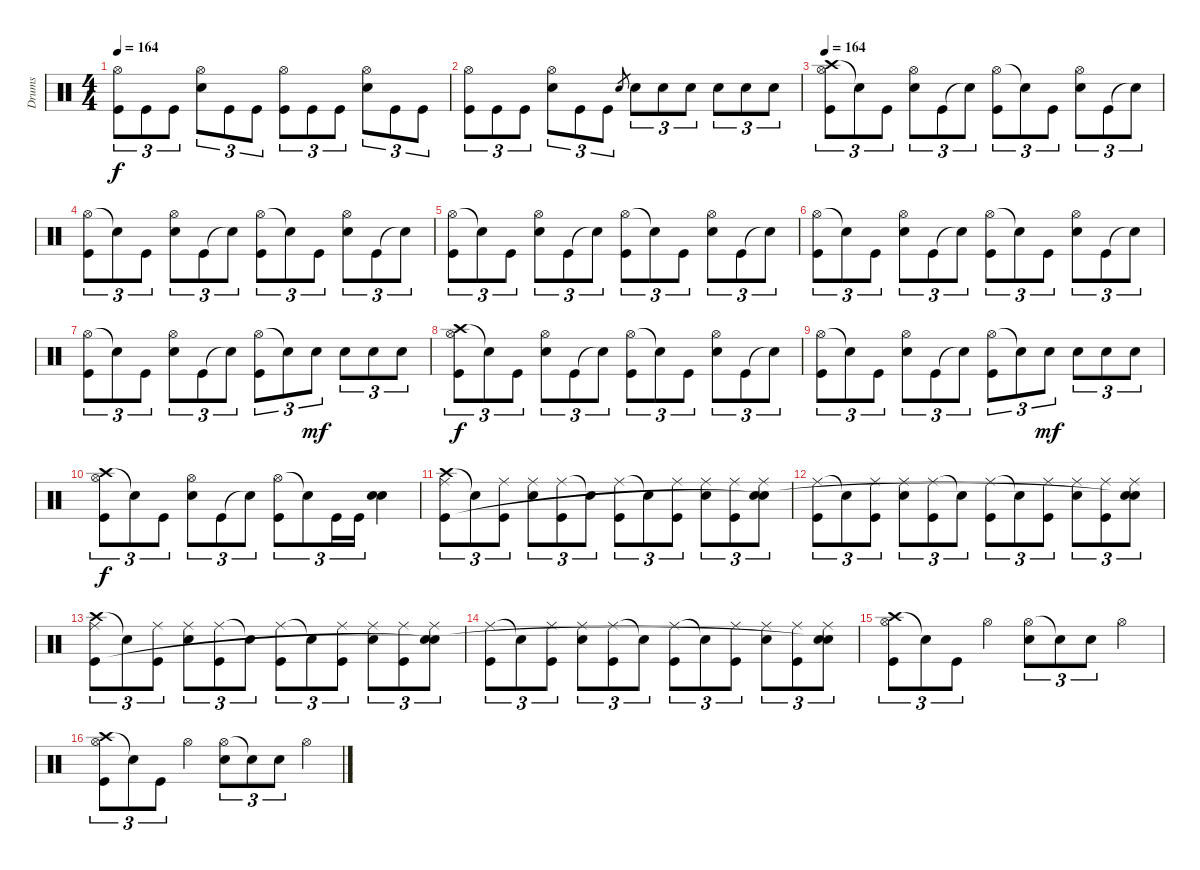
\track ("Drums" "Drums") {instrument percussion}
\staff {score}
\articulation defaults
\ts (4 4)
\tempo 164
\clef neutral
\ks c
("Hi-Hat (open)" "Kick (hit)").8{tu (3 2) dy f} "Kick (hit)".8{tu (3 2)} "Kick (hit)".8{tu (3 2)} ("Hi-Hat (open)" "Electric Snare (hit)").8{tu (3 2)} "Kick (hit)".8{tu (3 2)} "Kick (hit)".8{tu (3 2)} ("Hi-Hat (open)" "Kick (hit)").8{tu (3 2)} "Kick (hit)".8{tu (3 2)} "Kick (hit)".8{tu (3 2)} ("Hi-Hat (open)" "Electric Snare (hit)").8{tu (3 2)} "Kick (hit)".8{tu (3 2)} "Kick (hit)".8{tu (3 2)} |
("Hi-Hat (open)" "Kick (hit)").8{tu (3 2)} "Kick (hit)".8{tu (3 2)} "Kick (hit)".8{tu (3 2)} ("Hi-Hat (open)" "Electric Snare (hit)").8{tu (3 2)} "Kick (hit)".8{tu (3 2)} "Kick (hit)".8{tu (3 2)} "Electric Snare (hit)".8{gr} "Electric Snare (hit)".8{tu (3 2)} "Electric Snare (hit)".8{tu (3 2)} "Electric Snare (hit)".8{tu (3 2)} "Electric Snare (hit)".8{tu (3 2)} "Electric Snare (hit)".8{tu (3 2)} "Electric Snare (hit)".8{tu (3 2)} |
\tempo 164
("Crash high (hit)" "Hi-Hat (open)" "Kick (hit)").8{tu (3 2)} "Snare (hit)"{t}.8{tu (3 2)} "Kick (hit)".8{tu (3 2)} ("Hi-Hat (open)" "Electric Snare (hit)").8{tu (3 2)} "Kick (hit)".8{tu (3 2)} "Snare (hit)"{t}.8{tu (3 2)} ("Hi-Hat (open)" "Kick (hit)").8{tu (3 2)} "Snare (hit)"{t}.8{tu (3 2)} "Kick (hit)".8{tu (3 2)} ("Hi-Hat (open)" "Electric Snare (hit)").8{tu (3 2)} "Kick (hit)".8{tu (3 2)} "Snare (hit)"{t}.8{tu (3 2)} |
("Hi-Hat (open)" "Kick (hit)").8{tu (3 2)} "Snare (hit)"{t}.8{tu (3 2)} "Kick (hit)".8{tu (3 2)} ("Hi-Hat (open)" "Electric Snare (hit)").8{tu (3 2)} "Kick (hit)".8{tu (3 2)} "Snare (hit)"{t}.8{tu (3 2)} ("Hi-Hat (open)" "Kick (hit)").8{tu (3 2)} "Snare (hit)"{t}.8{tu (3 2)} "Kick (hit)".8{tu (3 2)} ("Hi-Hat (open)" "Electric Snare (hit)").8{tu (3 2)} "Kick (hit)".8{tu (3 2)} "Snare (hit)"{t}.8{tu (3 2)} |
("Hi-Hat (open)" "Kick (hit)").8{tu (3 2)} "Snare (hit)"{t}.8{tu (3 2)} "Kick (hit)".8{tu (3 2)} ("Hi-Hat (open)" "Electric Snare (hit)").8{tu (3 2)} "Kick (hit)".8{tu (3 2)} "Snare (hit)"{t}.8{tu (3 2)} ("Hi-Hat (open)" "Kick (hit)").8{tu (3 2)} "Snare (hit)"{t}.8{tu (3 2)} "Kick (hit)".8{tu (3 2)} ("Hi-Hat (open)" "Electric Snare (hit)").8{tu (3 2)} "Kick (hit)".8{tu (3 2)} "Snare (hit)"{t}.8{tu (3 2)} |
("Hi-Hat (open)" "Kick (hit)").8{tu (3 2)} "Snare (hit)"{t}.8{tu (3 2)} "Kick (hit)".8{tu (3 2)} ("Hi-Hat (open)" "Electric Snare (hit)").8{tu (3 2)} "Kick (hit)".8{tu (3 2)} "Snare (hit)"{t}.8{tu (3 2)} ("Hi-Hat (open)" "Kick (hit)").8{tu (3 2)} "Snare (hit)"{t}.8{tu (3 2)} "Kick (hit)".8{tu (3 2)} ("Hi-Hat (open)" "Electric Snare (hit)").8{tu (3 2)} "Kick (hit)".8{tu (3 2)} "Snare (hit)"{t}.8{tu (3 2)} |
("Hi-Hat (open)" "Kick (hit)").8{tu (3 2)} "Snare (hit)"{t}.8{tu (3 2)} "Kick (hit)".8{tu (3 2)} ("Hi-Hat (open)" "Electric Snare (hit)").8{tu (3 2)} "Kick (hit)".8{tu (3 2)} "Snare (hit)"{t}.8{tu (3 2)} ("Hi-Hat (open)" "Kick (hit)").8{tu (3 2)} "Snare (hit)"{t}.8{tu (3 2)} "Electric Snare (hit)".8{tu (3 2) dy mf} "Electric Snare (hit)".8{tu (3 2)} "Electric Snare (hit)".8{tu (3 2)} "Electric Snare (hit)".8{tu (3 2)} |
("Crash high (hit)" "Hi-Hat (open)" "Kick (hit)").8{tu (3 2) dy f} "Snare (hit)"{t}.8{tu (3 2)} "Kick (hit)".8{tu (3 2)} ("Hi-Hat (open)" "Electric Snare (hit)").8{tu (3 2)} "Kick (hit)".8{tu (3 2)} "Snare (hit)"{t}.8{tu (3 2)} ("Hi-Hat (open)" "Kick (hit)").8{tu (3 2)} "Snare (hit)"{t}.8{tu (3 2)} "Kick (hit)".8{tu (3 2)} ("Hi-Hat (open)" "Electric Snare (hit)").8{tu (3 2)} "Kick (hit)".8{tu (3 2)} "Snare (hit)"{t}.8{tu (3 2)} |
("Hi-Hat (open)" "Kick (hit)").8{tu (3 2)} "Snare (hit)"{t}.8{tu (3 2)} "Kick (hit)".8{tu (3 2)} ("Hi-Hat (open)" "Electric Snare (hit)").8{tu (3 2)} "Kick (hit)".8{tu (3 2)} "Snare (hit)"{t}.8{tu (3 2)} ("Hi-Hat (open)" "Kick (hit)").8{tu (3 2)} "Snare (hit)"{t}.8{tu (3 2)} "Electric Snare (hit)".8{tu (3 2) dy mf} "Electric Snare (hit)".8{tu (3 2)} "Electric Snare (hit)".8{tu (3 2)} "Electric Snare (hit)".8{tu (3 2)} |
("Crash high (hit)" "Hi-Hat (open)" "Kick (hit)").8{tu (3 2) dy f} "Snare (hit)"{t}.8{tu (3 2)} "Kick (hit)".8{tu (3 2)} ("Hi-Hat (open)" "Electric Snare (hit)").8{tu (3 2)} "Kick (hit)".8{tu (3 2)} "Snare (hit)"{t}.8{tu (3 2)} ("Hi-Hat (open)" "Kick (hit)").8{tu (3 2)} "Snare (hit)"{t}.8{tu (3 2)} "Kick (hit)".16{tu (3 2)} "Kick (hit)".16{tu (3 2)} ("Electric Snare (hit)" "Snare (hit) 2").4 |
("Crash high (hit)" "Ride (middle)" "Kick (hit)").8{tu (3 2)} "Snare (hit)"{t}.8{tu (3 2)} ("Ride (middle)" "Kick (hit)").8{tu (3 2)} ("Ride (middle)" "Electric Snare (hit)").8{tu (3 2)} ("Ride (middle)" "Kick (hit)").8{tu (3 2)} "Snare (hit)"{t}.8{tu (3 2)} ("Ride (middle)" "Kick (hit)").8{tu (3 2)} "Snare (hit)"{t}.8{tu (3 2)} ("Ride (middle)" "Kick (hit)").8{tu (3 2)} ("Ride (middle)" "Electric Snare (hit)").8{tu (3 2)} ("Ride (middle)" "Kick (hit)").8{tu (3 2)} ("Ride (middle)" "Electric Snare (hit)" "Snare (hit)"{t}).8{tu (3 2)} |
("Ride (middle)" "Kick (hit)").8{tu (3 2)} "Snare (hit)"{t}.8{tu (3 2)} ("Ride (middle)" "Kick (hit)").8{tu (3 2)} ("Ride (middle)" "Electric Snare (hit)").8{tu (3 2)} ("Ride (middle)" "Kick (hit)").8{tu (3 2)} "Snare (hit)"{t}.8{tu (3 2)} ("Ride (middle)" "Kick (hit)").8{tu (3 2)} "Snare (hit)"{t}.8{tu (3 2)} ("Ride (middle)" "Kick (hit)").8{tu (3 2)} ("Ride (middle)" "Electric Snare (hit)").8{tu (3 2)} ("Ride (middle)" "Kick (hit)").8{tu (3 2)} ("Ride (middle)" "Electric Snare (hit)" "Snare (hit)"{t}).8{tu (3 2)} |
("Crash high (hit)" "Ride (middle)" "Kick (hit)").8{tu (3 2)} "Snare (hit)"{t}.8{tu (3 2)} ("Ride (middle)" "Kick (hit)").8{tu (3 2)} ("Ride (middle)" "Electric Snare (hit)").8{tu (3 2)} ("Ride (middle)" "Kick (hit)").8{tu (3 2)} "Snare (hit)"{t}.8{tu (3 2)} ("Ride (middle)" "Kick (hit)").8{tu (3 2)} "Snare (hit)"{t}.8{tu (3 2)} ("Ride (middle)" "Kick (hit)").8{tu (3 2)} ("Ride (middle)" "Electric Snare (hit)").8{tu (3 2)} ("Ride (middle)" "Kick (hit)").8{tu (3 2)} ("Ride (middle)" "Electric Snare (hit)" "Snare (hit)"{t}).8{tu (3 2)} |
("Ride (middle)" "Kick (hit)").8{tu (3 2)} "Snare (hit)"{t}.8{tu (3 2)} ("Ride (middle)" "Kick (hit)").8{tu (3 2)} ("Ride (middle)" "Electric Snare (hit)").8{tu (3 2)} ("Ride (middle)" "Kick (hit)").8{tu (3 2)} "Snare (hit)"{t}.8{tu (3 2)} ("Ride (middle)" "Kick (hit)").8{tu (3 2)} "Snare (hit)"{t}.8{tu (3 2)} ("Ride (middle)" "Kick (hit)").8{tu (3 2)} ("Ride (middle)" "Electric Snare (hit)").8{tu (3 2)} ("Ride (middle)" "Kick (hit)").8{tu (3 2)} ("Ride (middle)" "Electric Snare (hit)" "Snare (hit)"{t}).8{tu (3 2)} |
("Crash high (hit)" "Hi-Hat (open)" "Kick (hit)").8{tu (3 2)} "Snare (hit)"{t}.8{tu (3 2)} "Kick (hit)".8{tu (3 2)} "Hi-Hat (open)".4 ("Hi-Hat (open)" "Electric Snare (hit)").8{tu (3 2)} "Snare (hit)"{t}.8{tu (3 2)} "Electric Snare (hit)".8{tu (3 2)} "Hi-Hat (open)".4 |
("Crash high (hit)" "Hi-Hat (open)" "Kick (hit)").8{tu (3 2)} "Snare (hit)"{t}.8{tu (3 2)} "Kick (hit)".8{tu (3 2)} "Hi-Hat (open)".4 ("Hi-Hat (open)" "Electric Snare (hit)").8{tu (3 2)} "Snare (hit)"{t}.8{tu (3 2)} "Electric Snare (hit)".8{tu (3 2)} "Hi-Hat (open)".4
